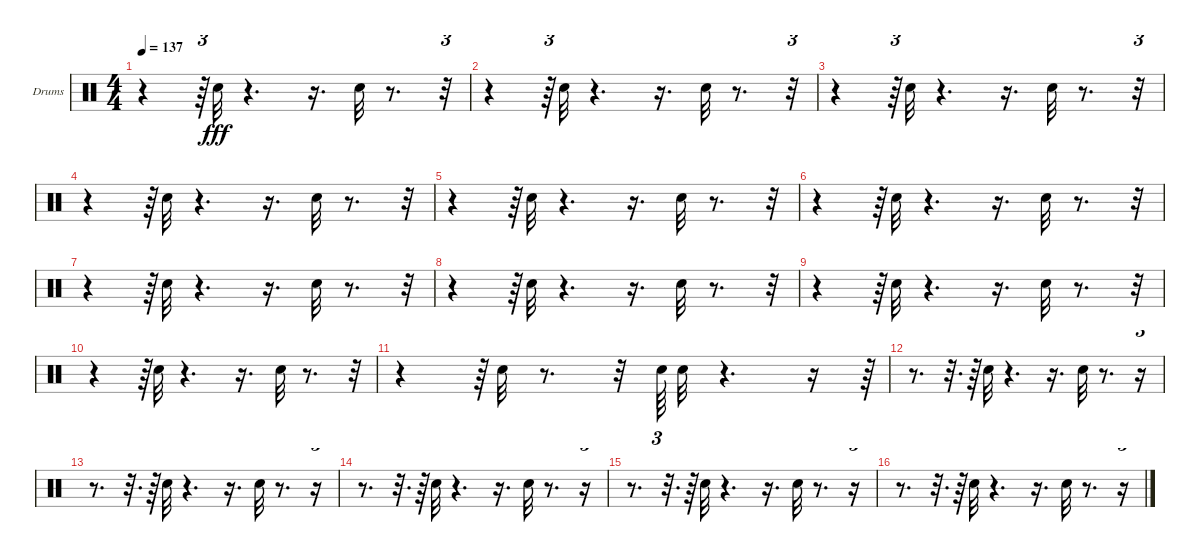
\bracketExtendMode groupsimilarinstruments
\firstSystemTrackNameOrientation horizontal
\otherSystemsTrackNameOrientation horizontal
\track ("Drumkit" "Drums") {instrument percussion}
\staff {score}
\articulation defaults
\ts (4 4)
\tempo 137
\clef neutral
\ks c
r.4{dy fff} r.64{tu (3 2)} "Snare (hit) 2".32 r.4{d} r.16{d} "Snare (hit) 2".32 r.8{d} r.32{tu (3 2)} |
r.4 r.64{tu (3 2)} "Snare (hit) 2".32 r.4{d} r.16{d} "Snare (hit) 2".32 r.8{d} r.32{tu (3 2)} |
r.4 r.64{tu (3 2)} "Snare (hit) 2".32 r.4{d} r.16{d} "Snare (hit) 2".32 r.8{d} r.32{tu (3 2)} |
r.4 r.64{tu (3 2)} "Snare (hit) 2".32 r.4{d} r.16{d} "Snare (hit) 2".32 r.8{d} r.32{tu (3 2)} |
r.4 r.64{tu (3 2)} "Snare (hit) 2".32 r.4{d} r.16{d} "Snare (hit) 2".32 r.8{d} r.32{tu (3 2)} |
r.4 r.64{tu (3 2)} "Snare (hit) 2".32 r.4{d} r.16{d} "Snare (hit) 2".32 r.8{d} r.32{tu (3 2)} |
r.4 r.64{tu (3 2)} "Snare (hit) 2".32 r.4{d} r.16{d} "Snare (hit) 2".32 r.8{d} r.32{tu (3 2)} |
r.4 r.64{tu (3 2)} "Snare (hit) 2".32 r.4{d} r.16{d} "Snare (hit) 2".32 r.8{d} r.32{tu (3 2)} |
r.4 r.64{tu (3 2)} "Snare (hit) 2".32 r.4{d} r.16{d} "Snare (hit) 2".32 r.8{d} r.32{tu (3 2)} |
r.4 r.64{tu (3 2)} "Snare (hit) 2".32 r.4{d} r.16{d} "Snare (hit) 2".32 r.8{d} r.32{tu (3 2)} |
r.4 r.64{tu (3 2)} "Snare (hit) 2".32 r.8{d} r.32 "Snare (hit) 2".64{tu (3 2)} "Snare (hit) 2".32 r.4{d} r.16 r.64{tu (3 2)} |
r.8{d} r.32{d} r.64 "Snare (hit) 2".32 r.4{d} r.16{d} "Snare (hit) 2".32 r.8{d} r.16{tu (3 2)} |
r.8{d} r.32{d} r.64 "Snare (hit) 2".32 r.4{d} r.16{d} "Snare (hit) 2".32 r.8{d} r.16{tu (3 2)} |
r.8{d} r.32{d} r.64 "Snare (hit) 2".32 r.4{d} r.16{d} "Snare (hit) 2".32 r.8{d} r.16{tu (3 2)} |
r.8{d} r.32{d} r.64 "Snare (hit) 2".32 r.4{d} r.16{d} "Snare (hit) 2".32 r.8{d} r.16{tu (3 2)} |
r.8{d} r.32{d} r.64 "Snare (hit) 2".32 r.4{d} r.16{d} "Snare (hit) 2".32 r.8{d} r.16{tu (3 2)}
